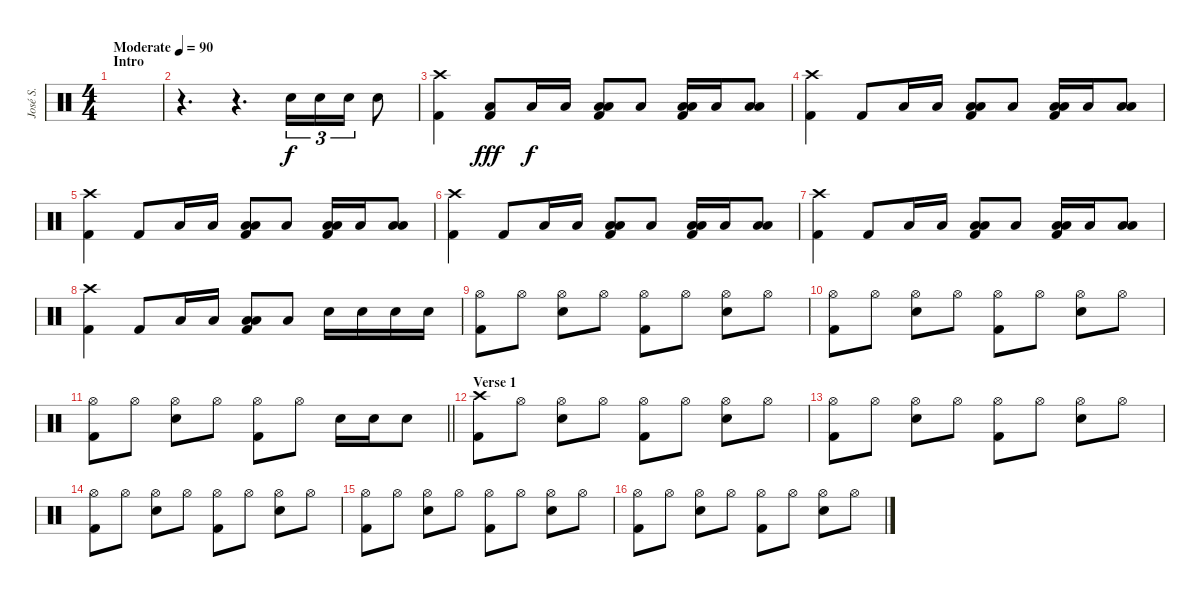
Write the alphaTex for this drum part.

\track ("José S." "José S.") {instrument percussion}
\staff {score}
\articulation defaults
\ts (4 4)
\section ("" "Intro")
\tempo (90 "Moderate")
\clef neutral
\ks c
|
r.4{d} r.4{d} "Electric Snare (hit)".16{tu (3 2)} "Electric Snare (hit)".16{tu (3 2)} "Electric Snare (hit)".16{tu (3 2)} "Electric Snare (hit)".8 |
("Crash high (hit)" "Kick (hit) 2").4 ("Low Floor Tom (hit)" "Kick (hit) 2").8{dy fff} "Low Floor Tom (hit)".16{dy f} "Low Floor Tom (hit)".16 ("Low Tom (hit)" "Low Floor Tom (hit)" "Kick (hit) 2").8 "Low Floor Tom (hit)".8 ("Low Tom (hit)" "Low Floor Tom (hit)" "Kick (hit) 2").16 "Low Floor Tom (hit)".16 ("Low Tom (hit)" "Low Floor Tom (hit)").8 |
("Crash high (hit)" "Kick (hit) 2").4 "Kick (hit) 2".8 "Low Floor Tom (hit)".16 "Low Floor Tom (hit)".16 ("Low Tom (hit)" "Low Floor Tom (hit)" "Kick (hit) 2").8 "Low Floor Tom (hit)".8 ("Low Tom (hit)" "Low Floor Tom (hit)" "Kick (hit) 2").16 "Low Floor Tom (hit)".16 ("Low Tom (hit)" "Low Floor Tom (hit)").8 |
("Crash high (hit)" "Kick (hit) 2").4 "Kick (hit) 2".8 "Low Floor Tom (hit)".16 "Low Floor Tom (hit)".16 ("Low Tom (hit)" "Low Floor Tom (hit)" "Kick (hit) 2").8 "Low Floor Tom (hit)".8 ("Low Tom (hit)" "Low Floor Tom (hit)" "Kick (hit) 2").16 "Low Floor Tom (hit)".16 ("Low Tom (hit)" "Low Floor Tom (hit)").8 |
("Crash high (hit)" "Kick (hit) 2").4 "Kick (hit) 2".8 "Low Floor Tom (hit)".16 "Low Floor Tom (hit)".16 ("Low Tom (hit)" "Low Floor Tom (hit)" "Kick (hit) 2").8 "Low Floor Tom (hit)".8 ("Low Tom (hit)" "Low Floor Tom (hit)" "Kick (hit) 2").16 "Low Floor Tom (hit)".16 ("Low Tom (hit)" "Low Floor Tom (hit)").8 |
("Crash high (hit)" "Kick (hit) 2").4 "Kick (hit) 2".8 "Low Floor Tom (hit)".16 "Low Floor Tom (hit)".16 ("Low Tom (hit)" "Low Floor Tom (hit)" "Kick (hit) 2").8 "Low Floor Tom (hit)".8 ("Low Tom (hit)" "Low Floor Tom (hit)" "Kick (hit) 2").16 "Low Floor Tom (hit)".16 ("Low Tom (hit)" "Low Floor Tom (hit)").8 |
("Crash high (hit)" "Kick (hit) 2").4 "Kick (hit) 2".8 "Low Floor Tom (hit)".16 "Low Floor Tom (hit)".16 ("Low Tom (hit)" "Low Floor Tom (hit)" "Kick (hit) 2").8 "Low Floor Tom (hit)".8 "Electric Snare (hit)".16 "Electric Snare (hit)".16 "Electric Snare (hit)".16 "Electric Snare (hit)".16 |
("Hi-Hat (open)" "Kick (hit) 2").8 "Hi-Hat (open)".8 ("Hi-Hat (open)" "Electric Snare (hit)").8 "Hi-Hat (open)".8 ("Hi-Hat (open)" "Kick (hit) 2").8 "Hi-Hat (open)".8 ("Hi-Hat (open)" "Electric Snare (hit)").8 "Hi-Hat (open)".8 |
("Hi-Hat (open)" "Kick (hit) 2").8 "Hi-Hat (open)".8 ("Hi-Hat (open)" "Electric Snare (hit)").8 "Hi-Hat (open)".8 ("Hi-Hat (open)" "Kick (hit) 2").8 "Hi-Hat (open)".8 ("Hi-Hat (open)" "Electric Snare (hit)").8 "Hi-Hat (open)".8 |
\barLineRight lightlight
("Hi-Hat (open)" "Kick (hit) 2").8 "Hi-Hat (open)".8 ("Hi-Hat (open)" "Electric Snare (hit)").8 "Hi-Hat (open)".8 ("Hi-Hat (open)" "Kick (hit) 2").8 "Hi-Hat (open)".8 "Electric Snare (hit)".16 "Electric Snare (hit)".16 "Electric Snare (hit)".8 |
\section ("" "Verse 1")
("Crash high (hit)" "Kick (hit) 2").8 "Hi-Hat (open)".8 ("Hi-Hat (open)" "Electric Snare (hit)").8 "Hi-Hat (open)".8 ("Hi-Hat (open)" "Kick (hit) 2").8 "Hi-Hat (open)".8 ("Hi-Hat (open)" "Electric Snare (hit)").8 "Hi-Hat (open)".8 |
("Hi-Hat (open)" "Kick (hit) 2").8 "Hi-Hat (open)".8 ("Hi-Hat (open)" "Electric Snare (hit)").8 "Hi-Hat (open)".8 ("Hi-Hat (open)" "Kick (hit) 2").8 "Hi-Hat (open)".8 ("Hi-Hat (open)" "Electric Snare (hit)").8 "Hi-Hat (open)".8 |
("Hi-Hat (open)" "Kick (hit) 2").8 "Hi-Hat (open)".8 ("Hi-Hat (open)" "Electric Snare (hit)").8 "Hi-Hat (open)".8 ("Hi-Hat (open)" "Kick (hit) 2").8 "Hi-Hat (open)".8 ("Hi-Hat (open)" "Electric Snare (hit)").8 "Hi-Hat (open)".8 |
("Hi-Hat (open)" "Kick (hit) 2").8 "Hi-Hat (open)".8 ("Hi-Hat (open)" "Electric Snare (hit)").8 "Hi-Hat (open)".8 ("Hi-Hat (open)" "Kick (hit) 2").8 "Hi-Hat (open)".8 ("Hi-Hat (open)" "Electric Snare (hit)").8 "Hi-Hat (open)".8 |
("Hi-Hat (open)" "Kick (hit) 2").8 "Hi-Hat (open)".8 ("Hi-Hat (open)" "Electric Snare (hit)").8 "Hi-Hat (open)".8 ("Hi-Hat (open)" "Kick (hit) 2").8 "Hi-Hat (open)".8 ("Hi-Hat (open)" "Electric Snare (hit)").8 "Hi-Hat (open)".8
